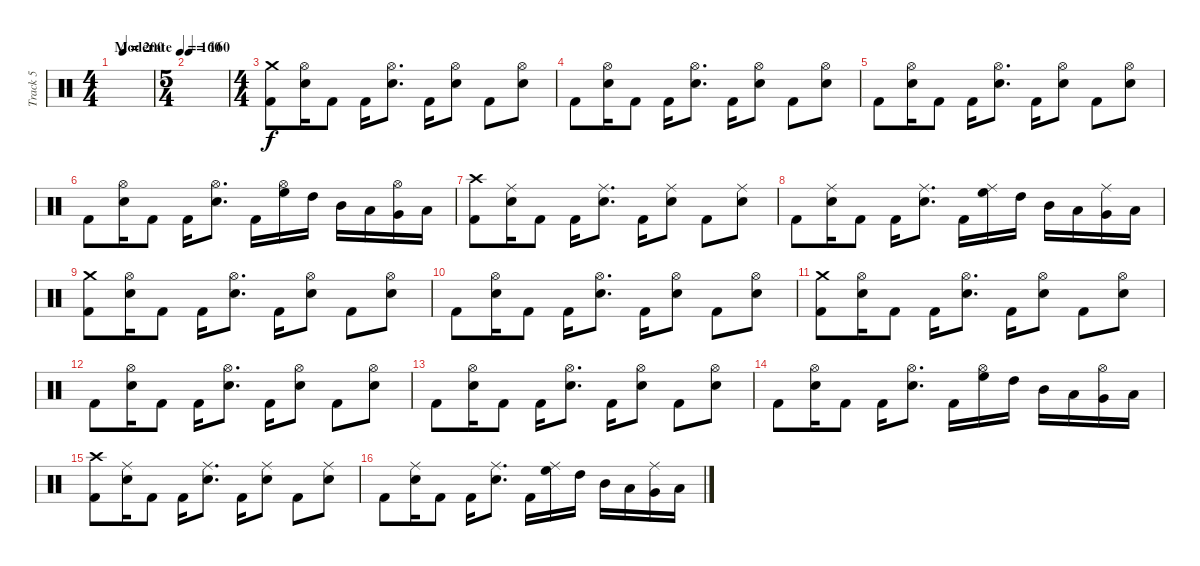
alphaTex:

\track ("Track 5" "Track 5") {instrument percussion}
\staff {score}
\articulation defaults
\ts (4 4)
\tempo (160 "Moderate")
\tempo (200 0.25)
\tempo (160 "Moderate")
\clef neutral
\ks c
|
\ts (5 4)
\tempo 160
|
\ts (4 4)
("Crash medium (hit)" "Kick (hit) 2").8 ("Hi-Hat (open)" "Snare (hit) 2").16 "Kick (hit) 2".8 "Kick (hit) 2".16 ("Hi-Hat (open)" "Snare (hit) 2").8{d} "Kick (hit) 2".16 ("Hi-Hat (open)" "Snare (hit) 2").8 "Kick (hit) 2".8 ("Hi-Hat (open)" "Snare (hit) 2").8 |
"Kick (hit) 2".8 ("Hi-Hat (open)" "Snare (hit) 2").16 "Kick (hit) 2".8 "Kick (hit) 2".16 ("Hi-Hat (open)" "Snare (hit) 2").8{d} "Kick (hit) 2".16 ("Hi-Hat (open)" "Snare (hit) 2").8 "Kick (hit) 2".8 ("Hi-Hat (open)" "Snare (hit) 2").8 |
"Kick (hit) 2".8 ("Hi-Hat (open)" "Snare (hit) 2").16 "Kick (hit) 2".8 "Kick (hit) 2".16 ("Hi-Hat (open)" "Snare (hit) 2").8{d} "Kick (hit) 2".16 ("Hi-Hat (open)" "Snare (hit) 2").8 "Kick (hit) 2".8 ("Hi-Hat (open)" "Snare (hit) 2").8 |
"Kick (hit) 2".8 ("Hi-Hat (open)" "Snare (hit) 2").16 "Kick (hit) 2".8 "Kick (hit) 2".16 ("Hi-Hat (open)" "Snare (hit) 2").8{d} "Kick (hit) 2".16 ("Hi-Hat (open)" "High Floor Tom (hit)").16 "High Tom (hit)".16 "Mid Tom (hit)".16 "Low Tom (hit)".16 ("Hi-Hat (open)" "Very Low Tom (hit)").16 "Low Floor Tom (hit)".16 |
("Crash high (hit)" "Kick (hit) 2").8 ("Ride (middle)" "Snare (hit) 2").16 "Kick (hit) 2".8 "Kick (hit) 2".16 ("Ride (middle)" "Snare (hit) 2").8{d} "Kick (hit) 2".16 ("Ride (middle)" "Snare (hit) 2").8 "Kick (hit) 2".8 ("Ride (middle)" "Snare (hit) 2").8 |
"Kick (hit) 2".8 ("Ride (middle)" "Snare (hit) 2").16 "Kick (hit) 2".8 "Kick (hit) 2".16 ("Ride (middle)" "Snare (hit) 2").8{d} "Kick (hit) 2".16 ("Ride (middle)" "High Floor Tom (hit)").16 "High Tom (hit)".16 "Mid Tom (hit)".16 "Low Tom (hit)".16 ("Ride (middle)" "Very Low Tom (hit)").16 "Low Floor Tom (hit)".16 |
("Crash medium (hit)" "Kick (hit) 2").8 ("Hi-Hat (open)" "Snare (hit) 2").16 "Kick (hit) 2".8 "Kick (hit) 2".16 ("Hi-Hat (open)" "Snare (hit) 2").8{d} "Kick (hit) 2".16 ("Hi-Hat (open)" "Snare (hit) 2").8 "Kick (hit) 2".8 ("Hi-Hat (open)" "Snare (hit) 2").8 |
"Kick (hit) 2".8 ("Hi-Hat (open)" "Snare (hit) 2").16 "Kick (hit) 2".8 "Kick (hit) 2".16 ("Hi-Hat (open)" "Snare (hit) 2").8{d} "Kick (hit) 2".16 ("Hi-Hat (open)" "Snare (hit) 2").8 "Kick (hit) 2".8 ("Hi-Hat (open)" "Snare (hit) 2").8 |
("Crash medium (hit)" "Kick (hit) 2").8 ("Hi-Hat (open)" "Snare (hit) 2").16 "Kick (hit) 2".8 "Kick (hit) 2".16 ("Hi-Hat (open)" "Snare (hit) 2").8{d} "Kick (hit) 2".16 ("Hi-Hat (open)" "Snare (hit) 2").8 "Kick (hit) 2".8 ("Hi-Hat (open)" "Snare (hit) 2").8 |
"Kick (hit) 2".8 ("Hi-Hat (open)" "Snare (hit) 2").16 "Kick (hit) 2".8 "Kick (hit) 2".16 ("Hi-Hat (open)" "Snare (hit) 2").8{d} "Kick (hit) 2".16 ("Hi-Hat (open)" "Snare (hit) 2").8 "Kick (hit) 2".8 ("Hi-Hat (open)" "Snare (hit) 2").8 |
"Kick (hit) 2".8 ("Hi-Hat (open)" "Snare (hit) 2").16 "Kick (hit) 2".8 "Kick (hit) 2".16 ("Hi-Hat (open)" "Snare (hit) 2").8{d} "Kick (hit) 2".16 ("Hi-Hat (open)" "Snare (hit) 2").8 "Kick (hit) 2".8 ("Hi-Hat (open)" "Snare (hit) 2").8 |
"Kick (hit) 2".8 ("Hi-Hat (open)" "Snare (hit) 2").16 "Kick (hit) 2".8 "Kick (hit) 2".16 ("Hi-Hat (open)" "Snare (hit) 2").8{d} "Kick (hit) 2".16 ("Hi-Hat (open)" "High Floor Tom (hit)").16 "High Tom (hit)".16 "Mid Tom (hit)".16 "Low Tom (hit)".16 ("Hi-Hat (open)" "Very Low Tom (hit)").16 "Low Floor Tom (hit)".16 |
("Crash high (hit)" "Kick (hit) 2").8 ("Ride (middle)" "Snare (hit) 2").16 "Kick (hit) 2".8 "Kick (hit) 2".16 ("Ride (middle)" "Snare (hit) 2").8{d} "Kick (hit) 2".16 ("Ride (middle)" "Snare (hit) 2").8 "Kick (hit) 2".8 ("Ride (middle)" "Snare (hit) 2").8 |
"Kick (hit) 2".8 ("Ride (middle)" "Snare (hit) 2").16 "Kick (hit) 2".8 "Kick (hit) 2".16 ("Ride (middle)" "Snare (hit) 2").8{d} "Kick (hit) 2".16 ("Ride (middle)" "High Floor Tom (hit)").16 "High Tom (hit)".16 "Mid Tom (hit)".16 "Low Tom (hit)".16 ("Ride (middle)" "Very Low Tom (hit)").16 "Low Floor Tom (hit)".16
